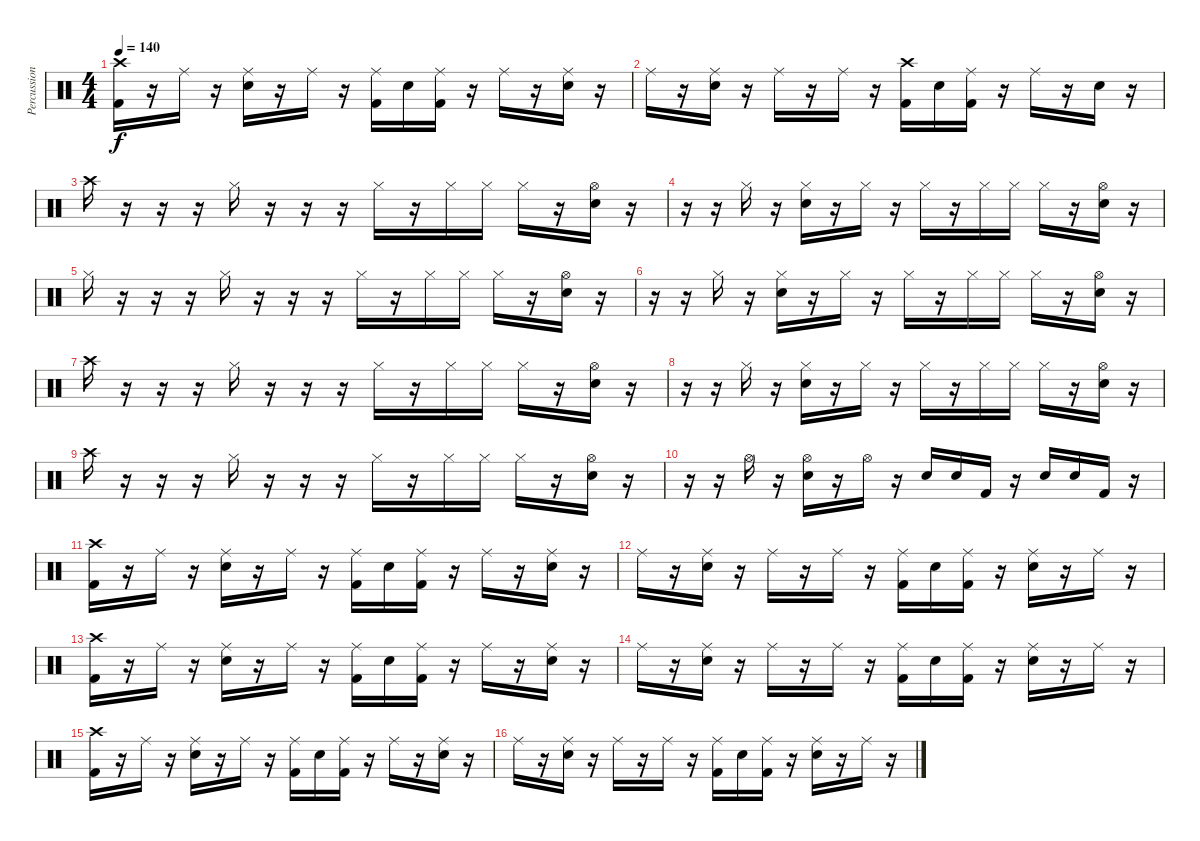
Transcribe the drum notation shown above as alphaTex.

\track ("Percussion" "Percussion") {instrument percussion}
\staff {score}
\articulation defaults
\ts (4 4)
\tempo 140
\clef neutral
\ks c
("Crash high (hit)" "Kick (hit) 2").16{dy f} r.16 "Ride (middle)".16 r.16 ("Ride (middle)" "Electric Snare (hit)").16 r.16 "Ride (middle)".16 r.16 ("Ride (middle)" "Kick (hit) 2").16 "Electric Snare (hit)".16 ("Ride (middle)" "Kick (hit) 2").16 r.16 "Ride (middle)".16 r.16 ("Ride (middle)" "Electric Snare (hit)").16 r.16 |
"Ride (middle)".16 r.16 ("Ride (middle)" "Electric Snare (hit)").16 r.16 "Ride (middle)".16 r.16 "Ride (middle)".16 r.16 ("Crash high (hit)" "Kick (hit) 2").16 "Electric Snare (hit)".16 ("Ride (middle)" "Kick (hit) 2").16 r.16 "Ride (middle)".16 r.16 "Electric Snare (hit)".16 r.16 |
"Crash high (hit)".16 r.16 r.16 r.16 "Hi-Hat (closed)".16 r.16 r.16 r.16 "Hi-Hat (closed)".16 r.16 "Hi-Hat (closed)".16 "Hi-Hat (closed)".16 "Hi-Hat (closed)".16 r.16 ("Hi-Hat (open)" "Electric Snare (hit)").16 r.16 |
r.16 r.16 "Hi-Hat (closed)".16 r.16 ("Hi-Hat (closed)" "Electric Snare (hit)").16 r.16 "Hi-Hat (closed)".16 r.16 "Hi-Hat (closed)".16 r.16 "Hi-Hat (closed)".16 "Hi-Hat (closed)".16 "Hi-Hat (closed)".16 r.16 ("Hi-Hat (open)" "Electric Snare (hit)").16 r.16 |
"Hi-Hat (closed)".16 r.16 r.16 r.16 "Hi-Hat (closed)".16 r.16 r.16 r.16 "Hi-Hat (closed)".16 r.16 "Hi-Hat (closed)".16 "Hi-Hat (closed)".16 "Hi-Hat (closed)".16 r.16 ("Hi-Hat (open)" "Electric Snare (hit)").16 r.16 |
r.16 r.16 "Hi-Hat (closed)".16 r.16 ("Hi-Hat (closed)" "Electric Snare (hit)").16 r.16 "Hi-Hat (closed)".16 r.16 "Hi-Hat (closed)".16 r.16 "Hi-Hat (closed)".16 "Hi-Hat (closed)".16 "Hi-Hat (closed)".16 r.16 ("Hi-Hat (open)" "Electric Snare (hit)").16 r.16 |
"Crash high (hit)".16 r.16 r.16 r.16 "Hi-Hat (closed)".16 r.16 r.16 r.16 "Hi-Hat (closed)".16 r.16 "Hi-Hat (closed)".16 "Hi-Hat (closed)".16 "Hi-Hat (closed)".16 r.16 ("Hi-Hat (open)" "Electric Snare (hit)").16 r.16 |
r.16 r.16 "Hi-Hat (closed)".16 r.16 ("Hi-Hat (closed)" "Electric Snare (hit)").16 r.16 "Hi-Hat (closed)".16 r.16 "Hi-Hat (closed)".16 r.16 "Hi-Hat (closed)".16 "Hi-Hat (closed)".16 "Hi-Hat (closed)".16 r.16 ("Hi-Hat (open)" "Electric Snare (hit)").16 r.16 |
"Crash high (hit)".16 r.16 r.16 r.16 "Hi-Hat (closed)".16 r.16 r.16 r.16 "Hi-Hat (closed)".16 r.16 "Hi-Hat (closed)".16 "Hi-Hat (closed)".16 "Hi-Hat (closed)".16 r.16 ("Hi-Hat (open)" "Electric Snare (hit)").16 r.16 |
r.16 r.16 "Hi-Hat (open)".16 r.16 ("Hi-Hat (open)" "Electric Snare (hit)").16 r.16 "Hi-Hat (open)".16 r.16 "Electric Snare (hit)".16 "Electric Snare (hit)".16 "Kick (hit) 2".16 r.16 "Electric Snare (hit)".16 "Electric Snare (hit)".16 "Kick (hit) 2".16 r.16 |
("Crash high (hit)" "Kick (hit) 2").16 r.16 "Ride (middle)".16 r.16 ("Ride (middle)" "Electric Snare (hit)").16 r.16 "Ride (middle)".16 r.16 ("Ride (middle)" "Kick (hit) 2").16 "Electric Snare (hit)".16 ("Ride (middle)" "Kick (hit) 2").16 r.16 "Ride (middle)".16 r.16 ("Ride (middle)" "Electric Snare (hit)").16 r.16 |
"Ride (middle)".16 r.16 ("Ride (middle)" "Electric Snare (hit)").16 r.16 "Ride (middle)".16 r.16 "Ride (middle)".16 r.16 ("Ride (middle)" "Kick (hit) 2").16 "Electric Snare (hit)".16 ("Ride (middle)" "Kick (hit) 2").16 r.16 ("Ride (middle)" "Electric Snare (hit)").16 r.16 "Ride (middle)".16 r.16 |
("Crash high (hit)" "Kick (hit) 2").16 r.16 "Ride (middle)".16 r.16 ("Ride (middle)" "Electric Snare (hit)").16 r.16 "Ride (middle)".16 r.16 ("Ride (middle)" "Kick (hit) 2").16 "Electric Snare (hit)".16 ("Ride (middle)" "Kick (hit) 2").16 r.16 "Ride (middle)".16 r.16 ("Ride (middle)" "Electric Snare (hit)").16 r.16 |
"Ride (middle)".16 r.16 ("Ride (middle)" "Electric Snare (hit)").16 r.16 "Ride (middle)".16 r.16 "Ride (middle)".16 r.16 ("Ride (middle)" "Kick (hit) 2").16 "Electric Snare (hit)".16 ("Ride (middle)" "Kick (hit) 2").16 r.16 ("Ride (middle)" "Electric Snare (hit)").16 r.16 "Ride (middle)".16 r.16 |
("Crash high (hit)" "Kick (hit) 2").16 r.16 "Ride (middle)".16 r.16 ("Ride (middle)" "Electric Snare (hit)").16 r.16 "Ride (middle)".16 r.16 ("Ride (middle)" "Kick (hit) 2").16 "Electric Snare (hit)".16 ("Ride (middle)" "Kick (hit) 2").16 r.16 "Ride (middle)".16 r.16 ("Ride (middle)" "Electric Snare (hit)").16 r.16 |
"Ride (middle)".16 r.16 ("Ride (middle)" "Electric Snare (hit)").16 r.16 "Ride (middle)".16 r.16 "Ride (middle)".16 r.16 ("Ride (middle)" "Kick (hit) 2").16 "Electric Snare (hit)".16 ("Ride (middle)" "Kick (hit) 2").16 r.16 ("Ride (middle)" "Electric Snare (hit)").16 r.16 "Ride (middle)".16 r.16
